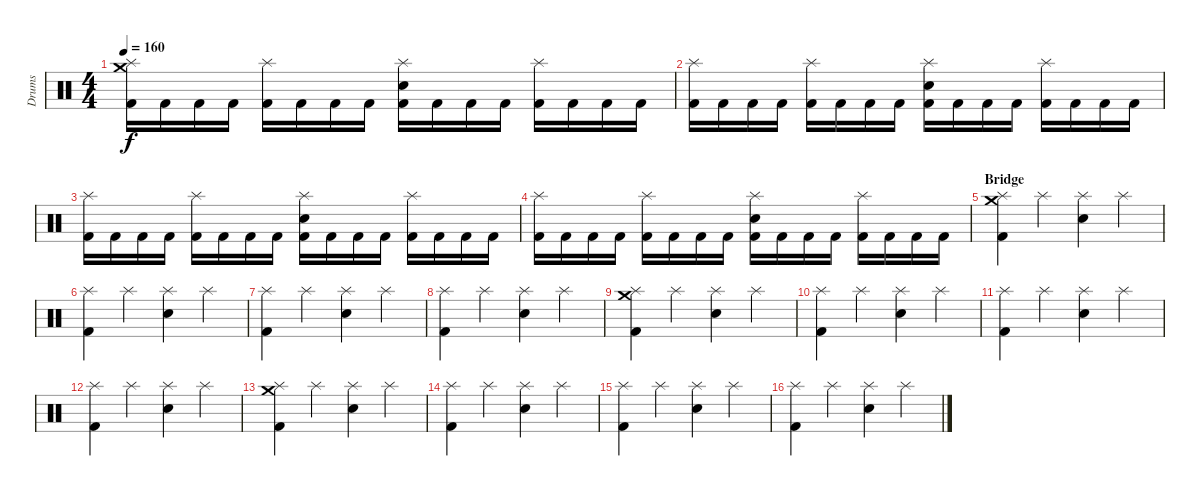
\track ("Drums" "Drums") {instrument percussion}
\staff {score}
\articulation defaults
\ts (4 4)
\tempo 160
\clef neutral
\ks c
("Splash (hit)" "Crash medium (hit)" "Kick (hit) 2").16{dy f} "Kick (hit) 2".16 "Kick (hit) 2".16 "Kick (hit) 2".16 ("Splash (hit)" "Kick (hit) 2").16 "Kick (hit) 2".16 "Kick (hit) 2".16 "Kick (hit) 2".16 ("Splash (hit)" "Snare (hit) 2" "Kick (hit) 2").16 "Kick (hit) 2".16 "Kick (hit) 2".16 "Kick (hit) 2".16 ("Splash (hit)" "Kick (hit) 2").16 "Kick (hit) 2".16 "Kick (hit) 2".16 "Kick (hit) 2".16 |
("Splash (hit)" "Kick (hit) 2").16 "Kick (hit) 2".16 "Kick (hit) 2".16 "Kick (hit) 2".16 ("Splash (hit)" "Kick (hit) 2").16 "Kick (hit) 2".16 "Kick (hit) 2".16 "Kick (hit) 2".16 ("Splash (hit)" "Snare (hit) 2" "Kick (hit) 2").16 "Kick (hit) 2".16 "Kick (hit) 2".16 "Kick (hit) 2".16 ("Splash (hit)" "Kick (hit) 2").16 "Kick (hit) 2".16 "Kick (hit) 2".16 "Kick (hit) 2".16 |
("Splash (hit)" "Kick (hit) 2").16 "Kick (hit) 2".16 "Kick (hit) 2".16 "Kick (hit) 2".16 ("Splash (hit)" "Kick (hit) 2").16 "Kick (hit) 2".16 "Kick (hit) 2".16 "Kick (hit) 2".16 ("Splash (hit)" "Snare (hit) 2" "Kick (hit) 2").16 "Kick (hit) 2".16 "Kick (hit) 2".16 "Kick (hit) 2".16 ("Splash (hit)" "Kick (hit) 2").16 "Kick (hit) 2".16 "Kick (hit) 2".16 "Kick (hit) 2".16 |
("Splash (hit)" "Kick (hit) 2").16 "Kick (hit) 2".16 "Kick (hit) 2".16 "Kick (hit) 2".16 ("Splash (hit)" "Kick (hit) 2").16 "Kick (hit) 2".16 "Kick (hit) 2".16 "Kick (hit) 2".16 ("Splash (hit)" "Snare (hit) 2" "Kick (hit) 2").16 "Kick (hit) 2".16 "Kick (hit) 2".16 "Kick (hit) 2".16 ("Splash (hit)" "Kick (hit) 2").16 "Kick (hit) 2".16 "Kick (hit) 2".16 "Kick (hit) 2".16 |
\section ("" "Bridge")
("Splash (hit)" "Crash medium (hit)" "Kick (hit) 2").4 "Splash (hit)".4 ("Splash (hit)" "Snare (hit) 2").4 "Splash (hit)".4 |
("Splash (hit)" "Kick (hit) 2").4 "Splash (hit)".4 ("Splash (hit)" "Snare (hit) 2").4 "Splash (hit)".4 |
("Splash (hit)" "Kick (hit) 2").4 "Splash (hit)".4 ("Splash (hit)" "Snare (hit) 2").4 "Splash (hit)".4 |
("Splash (hit)" "Kick (hit) 2").4 "Splash (hit)".4 ("Splash (hit)" "Snare (hit) 2").4 "Splash (hit)".4 |
("Splash (hit)" "Crash medium (hit)" "Kick (hit) 2").4 "Splash (hit)".4 ("Splash (hit)" "Snare (hit) 2").4 "Splash (hit)".4 |
("Splash (hit)" "Kick (hit) 2").4 "Splash (hit)".4 ("Splash (hit)" "Snare (hit) 2").4 "Splash (hit)".4 |
("Splash (hit)" "Kick (hit) 2").4 "Splash (hit)".4 ("Splash (hit)" "Snare (hit) 2").4 "Splash (hit)".4 |
("Splash (hit)" "Kick (hit) 2").4 "Splash (hit)".4 ("Splash (hit)" "Snare (hit) 2").4 "Splash (hit)".4 |
("Splash (hit)" "Crash medium (hit)" "Kick (hit) 2").4 "Splash (hit)".4 ("Splash (hit)" "Snare (hit) 2").4 "Splash (hit)".4 |
("Splash (hit)" "Kick (hit) 2").4 "Splash (hit)".4 ("Splash (hit)" "Snare (hit) 2").4 "Splash (hit)".4 |
("Splash (hit)" "Kick (hit) 2").4 "Splash (hit)".4 ("Splash (hit)" "Snare (hit) 2").4 "Splash (hit)".4 |
("Splash (hit)" "Kick (hit) 2").4 "Splash (hit)".4 ("Splash (hit)" "Snare (hit) 2").4 "Splash (hit)".4
